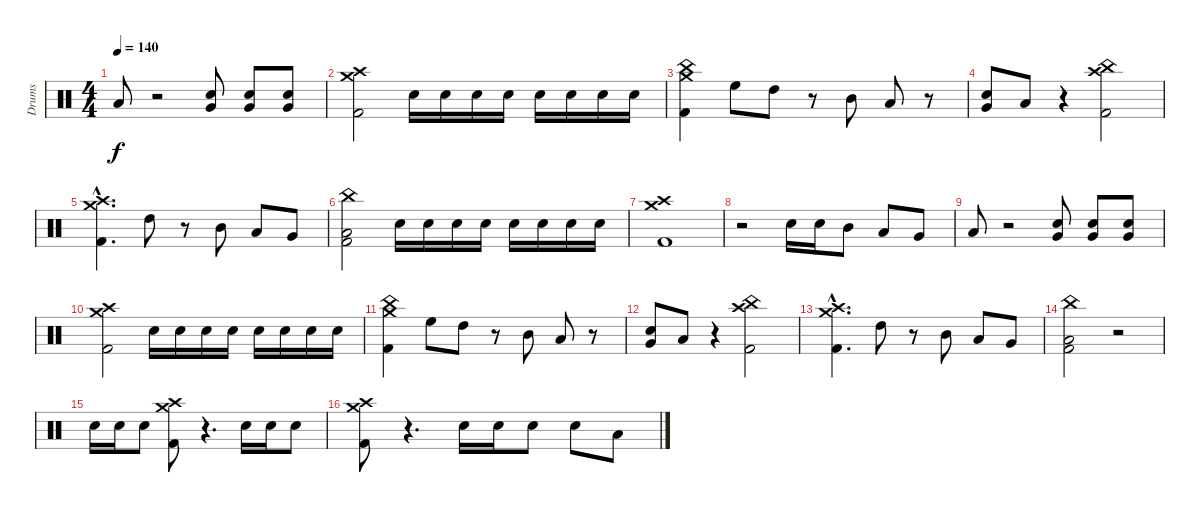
\track ("Drums" "Drums") {instrument percussion}
\staff {score}
\articulation defaults
\ts (4 4)
\tempo 140
\clef neutral
\ks c "Low Floor Tom (hit)".8{dy f}
r.2 ("Very Low Tom (hit)" "Snare (hit) 2").8 ("Very Low Tom (hit)" "Snare (hit) 2").8 ("Very Low Tom (hit)" "Snare (hit) 2").8 |
("Crash medium (hit)" "Crash high (hit)" "Kick (hit) 2").2 "Snare (hit) 2".16 "Snare (hit) 2".16 "Snare (hit) 2".16 "Snare (hit) 2".16 "Snare (hit) 2".16 "Snare (hit) 2".16 "Snare (hit) 2".16 "Snare (hit) 2".16 |
("Crash medium (hit)" "China (hit)" "Kick (hit) 2").4 "High Floor Tom (hit)".8 "High Tom (hit)".8 r.8 "Mid Tom (hit)".8 "Low Tom (hit)".8 r.8 |
("Very Low Tom (hit)" "Snare (hit) 2").8 "Low Floor Tom (hit)".8 r.4 ("China (hit)" "Crash high (hit)" "Kick (hit) 2").2 |
("Crash medium (hit)"{hac} "Crash high (hit)"{hac} "Kick (hit) 2"{hac}).4{d} "High Tom (hit)".8 r.8 "Mid Tom (hit)".8 "Low Tom (hit)".8 "Very Low Tom (hit)".8 |
("China (hit)" "Low Floor Tom (hit)" "Kick (hit) 2").2 "Snare (hit) 2".16 "Snare (hit) 2".16 "Snare (hit) 2".16 "Snare (hit) 2".16 "Snare (hit) 2".16 "Snare (hit) 2".16 "Snare (hit) 2".16 "Snare (hit) 2".16 |
("Crash medium (hit)" "Crash high (hit)" "Kick (hit) 2").1 |
r.2 "Snare (hit) 2".16 "Snare (hit) 2".16 "Mid Tom (hit)".8 "Low Tom (hit)".8 "Very Low Tom (hit)".8 |
"Low Floor Tom (hit)".8 r.2 ("Very Low Tom (hit)" "Snare (hit) 2").8 ("Very Low Tom (hit)" "Snare (hit) 2").8 ("Very Low Tom (hit)" "Snare (hit) 2").8 |
("Crash medium (hit)" "Crash high (hit)" "Kick (hit) 2").2 "Snare (hit) 2".16 "Snare (hit) 2".16 "Snare (hit) 2".16 "Snare (hit) 2".16 "Snare (hit) 2".16 "Snare (hit) 2".16 "Snare (hit) 2".16 "Snare (hit) 2".16 |
("Crash medium (hit)" "China (hit)" "Kick (hit) 2").4 "High Floor Tom (hit)".8 "High Tom (hit)".8 r.8 "Mid Tom (hit)".8 "Low Tom (hit)".8 r.8 |
("Very Low Tom (hit)" "Snare (hit) 2").8 "Low Floor Tom (hit)".8 r.4 ("China (hit)" "Crash high (hit)" "Kick (hit) 2").2 |
("Crash medium (hit)"{hac} "Crash high (hit)"{hac} "Kick (hit) 2"{hac}).4{d} "High Tom (hit)".8 r.8 "Mid Tom (hit)".8 "Low Tom (hit)".8 "Very Low Tom (hit)".8 |
("China (hit)" "Low Floor Tom (hit)" "Kick (hit) 2").2 r.2 |
"Snare (hit) 2".16 "Snare (hit) 2".16 "Snare (hit) 2".8 ("Crash medium (hit)" "Crash high (hit)" "Kick (hit) 2").8 r.4{d} "Snare (hit) 2".16 "Snare (hit) 2".16 "Snare (hit) 2".8 |
("Crash medium (hit)" "Crash high (hit)" "Kick (hit) 2").8 r.4{d} "Snare (hit) 2".16 "Snare (hit) 2".16 "Snare (hit) 2".8 "Snare (hit) 2".8 "Low Tom (hit)".8
